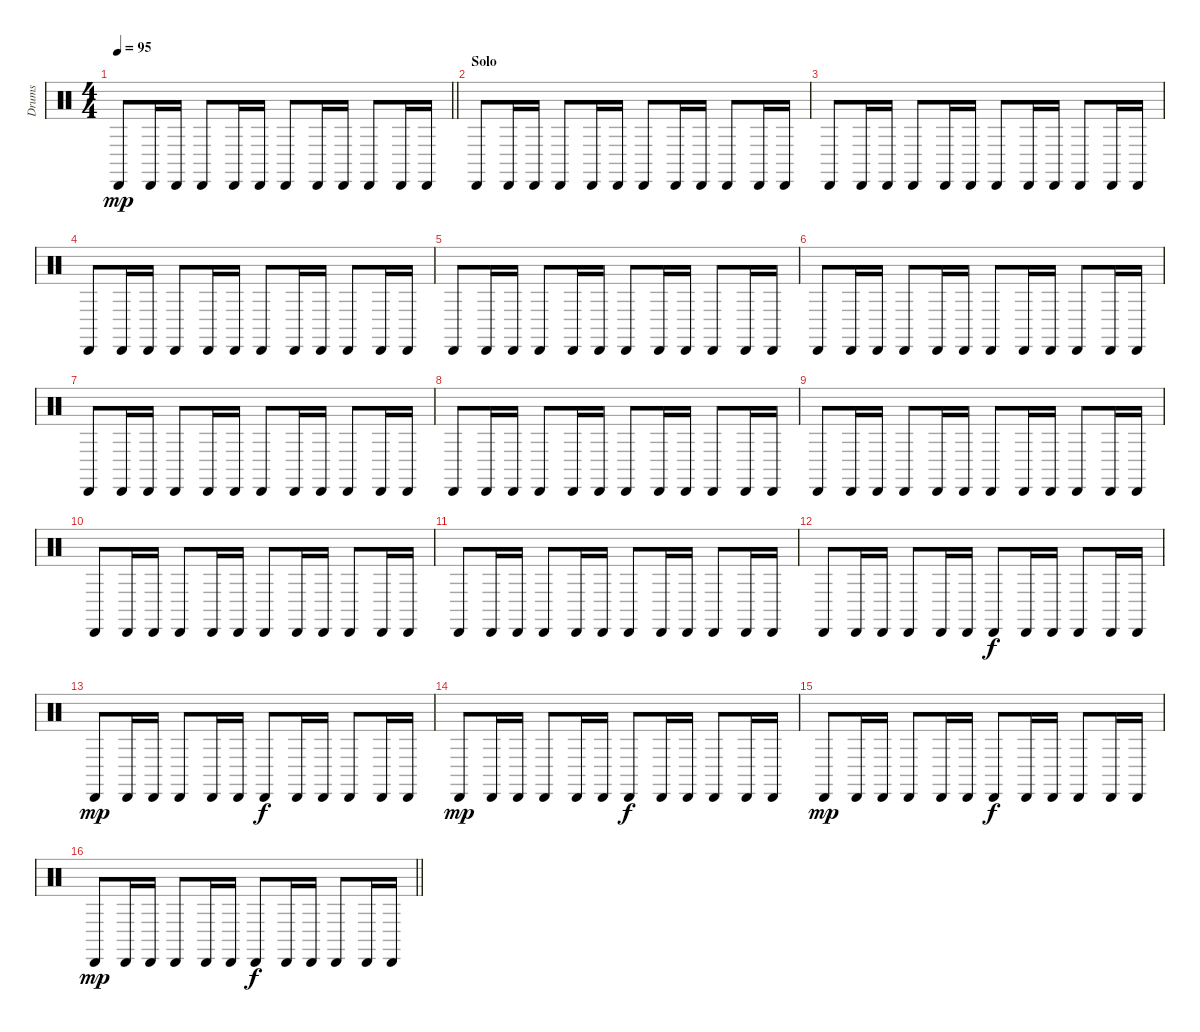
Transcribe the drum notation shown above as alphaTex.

\track ("Drums" "Drums") {instrument percussion}
\staff {score}
\articulation defaults
\ts (4 4)
\tempo 95
\clef neutral
\barLineRight lightlight
\ks c "Cabasa (hit)".8{dy mp} "Cabasa (hit)".16 "Cabasa (hit)".16 "Cabasa (hit)".8 "Cabasa (hit)".16 "Cabasa (hit)".16 "Cabasa (hit)".8 "Cabasa (hit)".16 "Cabasa (hit)".16 "Cabasa (hit)".8 "Cabasa (hit)".16 "Cabasa (hit)".16
|
\section ("" "Solo")
"Cabasa (hit)".8 "Cabasa (hit)".16 "Cabasa (hit)".16 "Cabasa (hit)".8 "Cabasa (hit)".16 "Cabasa (hit)".16 "Cabasa (hit)".8 "Cabasa (hit)".16 "Cabasa (hit)".16 "Cabasa (hit)".8 "Cabasa (hit)".16 "Cabasa (hit)".16 |
"Cabasa (hit)".8 "Cabasa (hit)".16 "Cabasa (hit)".16 "Cabasa (hit)".8 "Cabasa (hit)".16 "Cabasa (hit)".16 "Cabasa (hit)".8 "Cabasa (hit)".16 "Cabasa (hit)".16 "Cabasa (hit)".8 "Cabasa (hit)".16 "Cabasa (hit)".16 |
"Cabasa (hit)".8 "Cabasa (hit)".16 "Cabasa (hit)".16 "Cabasa (hit)".8 "Cabasa (hit)".16 "Cabasa (hit)".16 "Cabasa (hit)".8 "Cabasa (hit)".16 "Cabasa (hit)".16 "Cabasa (hit)".8 "Cabasa (hit)".16 "Cabasa (hit)".16 |
"Cabasa (hit)".8 "Cabasa (hit)".16 "Cabasa (hit)".16 "Cabasa (hit)".8 "Cabasa (hit)".16 "Cabasa (hit)".16 "Cabasa (hit)".8 "Cabasa (hit)".16 "Cabasa (hit)".16 "Cabasa (hit)".8 "Cabasa (hit)".16 "Cabasa (hit)".16 |
"Cabasa (hit)".8 "Cabasa (hit)".16 "Cabasa (hit)".16 "Cabasa (hit)".8 "Cabasa (hit)".16 "Cabasa (hit)".16 "Cabasa (hit)".8 "Cabasa (hit)".16 "Cabasa (hit)".16 "Cabasa (hit)".8 "Cabasa (hit)".16 "Cabasa (hit)".16 |
"Cabasa (hit)".8 "Cabasa (hit)".16 "Cabasa (hit)".16 "Cabasa (hit)".8 "Cabasa (hit)".16 "Cabasa (hit)".16 "Cabasa (hit)".8 "Cabasa (hit)".16 "Cabasa (hit)".16 "Cabasa (hit)".8 "Cabasa (hit)".16 "Cabasa (hit)".16 |
"Cabasa (hit)".8 "Cabasa (hit)".16 "Cabasa (hit)".16 "Cabasa (hit)".8 "Cabasa (hit)".16 "Cabasa (hit)".16 "Cabasa (hit)".8 "Cabasa (hit)".16 "Cabasa (hit)".16 "Cabasa (hit)".8 "Cabasa (hit)".16 "Cabasa (hit)".16 |
"Cabasa (hit)".8 "Cabasa (hit)".16 "Cabasa (hit)".16 "Cabasa (hit)".8 "Cabasa (hit)".16 "Cabasa (hit)".16 "Cabasa (hit)".8 "Cabasa (hit)".16 "Cabasa (hit)".16 "Cabasa (hit)".8 "Cabasa (hit)".16 "Cabasa (hit)".16 |
"Cabasa (hit)".8 "Cabasa (hit)".16 "Cabasa (hit)".16 "Cabasa (hit)".8 "Cabasa (hit)".16 "Cabasa (hit)".16 "Cabasa (hit)".8 "Cabasa (hit)".16 "Cabasa (hit)".16 "Cabasa (hit)".8 "Cabasa (hit)".16 "Cabasa (hit)".16 |
"Cabasa (hit)".8 "Cabasa (hit)".16 "Cabasa (hit)".16 "Cabasa (hit)".8 "Cabasa (hit)".16 "Cabasa (hit)".16 "Cabasa (hit)".8 "Cabasa (hit)".16 "Cabasa (hit)".16 "Cabasa (hit)".8 "Cabasa (hit)".16 "Cabasa (hit)".16 |
"Cabasa (hit)".8 "Cabasa (hit)".16 "Cabasa (hit)".16 "Cabasa (hit)".8 "Cabasa (hit)".16 "Cabasa (hit)".16 "Cabasa (hit)".8{dy f} "Cabasa (hit)".16 "Cabasa (hit)".16 "Cabasa (hit)".8 "Cabasa (hit)".16 "Cabasa (hit)".16 |
"Cabasa (hit)".8{dy mp} "Cabasa (hit)".16 "Cabasa (hit)".16 "Cabasa (hit)".8 "Cabasa (hit)".16 "Cabasa (hit)".16 "Cabasa (hit)".8{dy f} "Cabasa (hit)".16 "Cabasa (hit)".16 "Cabasa (hit)".8 "Cabasa (hit)".16 "Cabasa (hit)".16 |
"Cabasa (hit)".8{dy mp} "Cabasa (hit)".16 "Cabasa (hit)".16 "Cabasa (hit)".8 "Cabasa (hit)".16 "Cabasa (hit)".16 "Cabasa (hit)".8{dy f} "Cabasa (hit)".16 "Cabasa (hit)".16 "Cabasa (hit)".8 "Cabasa (hit)".16 "Cabasa (hit)".16 |
"Cabasa (hit)".8{dy mp} "Cabasa (hit)".16 "Cabasa (hit)".16 "Cabasa (hit)".8 "Cabasa (hit)".16 "Cabasa (hit)".16 "Cabasa (hit)".8{dy f} "Cabasa (hit)".16 "Cabasa (hit)".16 "Cabasa (hit)".8 "Cabasa (hit)".16 "Cabasa (hit)".16 |
\barLineRight lightlight "Cabasa (hit)".8{dy mp} "Cabasa (hit)".16 "Cabasa (hit)".16 "Cabasa (hit)".8 "Cabasa (hit)".16 "Cabasa (hit)".16 "Cabasa (hit)".8{dy f} "Cabasa (hit)".16 "Cabasa (hit)".16 "Cabasa (hit)".8 "Cabasa (hit)".16 "Cabasa (hit)".16
